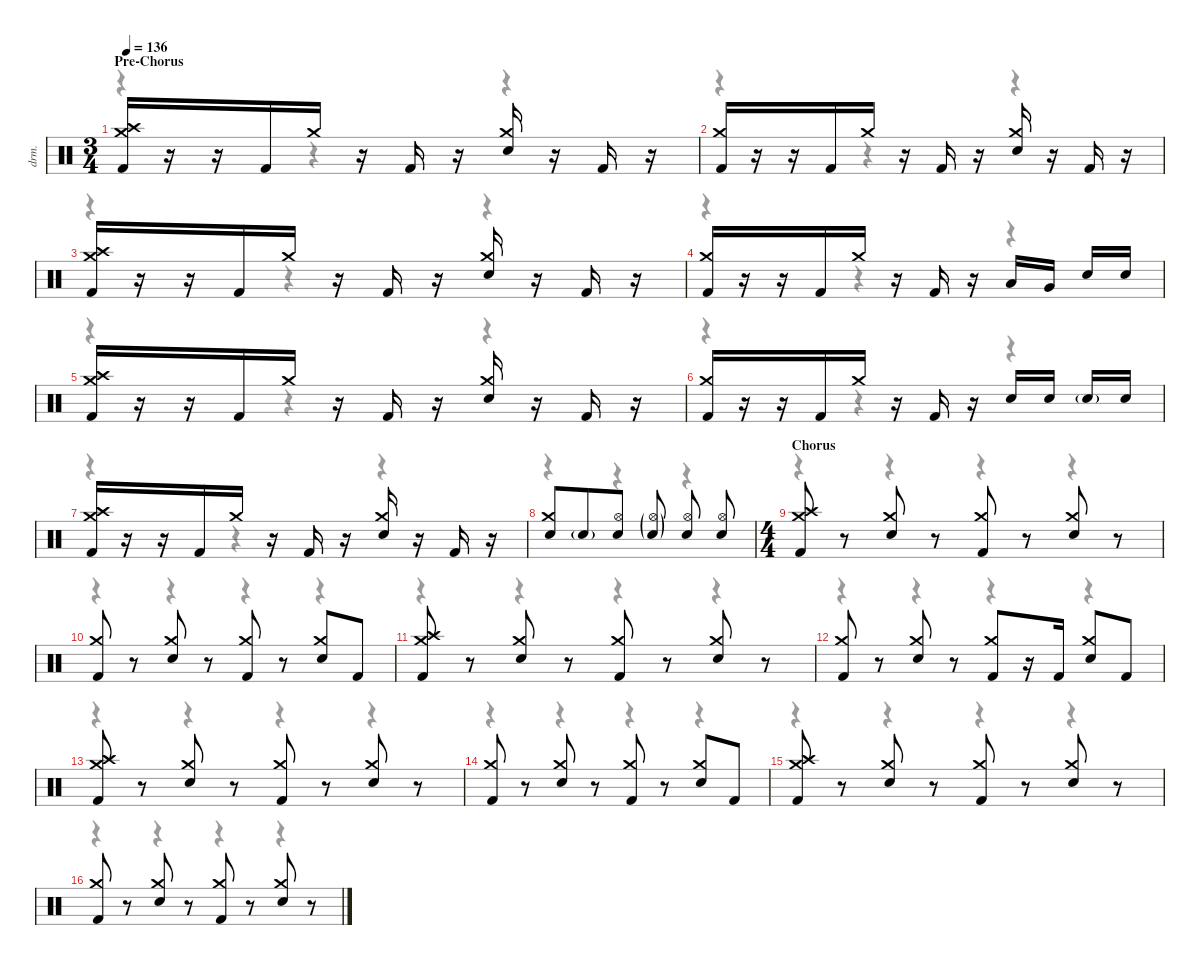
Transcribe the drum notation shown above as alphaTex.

\defaultSystemsLayout 4
\hideDynamics
\bracketExtendMode nobrackets
\track ("Drums" "drm.") {instrument percussion}
\staff {score}
\articulation defaults
\voice
\ts (3 4)
\beaming (8 3 1 1 1)
\section ("" "Pre-Chorus")
\tempo 136
\clef neutral
\ks c
("Crash medium (hit)" "Crash high (hit)" "Kick (hit) 2").16{dy f beam Up} r.16{beam Up} r.16{beam Up} "Kick (hit) 2".16{beam Up} "Crash medium (hit)".16{beam Up} r.16{beam Up} "Kick (hit) 2".16{beam Up} r.16{beam Up} ("Crash medium (hit)" "Snare (hit) 2").16{beam Up} r.16{beam Up} "Kick (hit) 2".16{beam Up} r.16{beam Up} |
("Crash medium (hit)" "Kick (hit) 2").16{beam Up} r.16{beam Up} r.16{beam Up} "Kick (hit) 2".16{beam Up} "Crash medium (hit)".16{beam Up} r.16{beam Up} "Kick (hit) 2".16{beam Up} r.16{beam Up} ("Crash medium (hit)" "Snare (hit) 2").16{beam Up} r.16{beam Up} "Kick (hit) 2".16{beam Up} r.16{beam Up} |
("Crash medium (hit)" "Crash high (hit)" "Kick (hit) 2").16{beam Up} r.16{beam Up} r.16{beam Up} "Kick (hit) 2".16{beam Up} "Crash medium (hit)".16{beam Up} r.16{beam Up} "Kick (hit) 2".16{beam Up} r.16{beam Up} ("Crash medium (hit)" "Snare (hit) 2").16{beam Up} r.16{beam Up} "Kick (hit) 2".16{beam Up} r.16{beam Up} |
("Crash medium (hit)" "Kick (hit) 2").16{beam Up} r.16{beam Up} r.16{beam Up} "Kick (hit) 2".16{beam Up} "Crash medium (hit)".16{beam Up} r.16{beam Up} "Kick (hit) 2".16{beam Up} r.16{beam Up} "Low Tom (hit)".16{beam Up} "Very Low Tom (hit)".16{beam Up} "Snare (hit) 2".16{beam Up} "Snare (hit) 2".16{beam Up} |
("Crash medium (hit)" "Crash high (hit)" "Kick (hit) 2").16{beam Up} r.16{beam Up} r.16{beam Up} "Kick (hit) 2".16{beam Up} "Crash medium (hit)".16{beam Up} r.16{beam Up} "Kick (hit) 2".16{beam Up} r.16{beam Up} ("Crash medium (hit)" "Snare (hit) 2").16{beam Up} r.16{beam Up} "Kick (hit) 2".16{beam Up} r.16{beam Up} |
("Crash medium (hit)" "Kick (hit) 2").16{beam Up} r.16{beam Up} r.16{beam Up} "Kick (hit) 2".16{beam Up} "Crash medium (hit)".16{beam Up} r.16{beam Up} "Kick (hit) 2".16{beam Up} r.16{beam Up} "Snare (hit) 2".16{beam Up} "Snare (hit) 2".16{beam Up} "Snare (hit) 2"{g}.16{beam Up} "Snare (hit) 2".16{beam Up} |
("Crash medium (hit)" "Crash high (hit)" "Kick (hit) 2").16{beam Up} r.16{beam Up} r.16{beam Up} "Kick (hit) 2".16{beam Up} "Crash medium (hit)".16{beam Up} r.16{beam Up} "Kick (hit) 2".16{beam Up} r.16{beam Up} ("Crash medium (hit)" "Snare (hit) 2").16{beam Up} r.16{beam Up} "Kick (hit) 2".16{beam Up} r.16{beam Up} |
("Crash medium (hit)" "Snare (hit) 2").8{beam Up} "Snare (hit) 2"{g}.8{beam Up} ("Hi-Hat (open)" "Snare (hit) 2").8{beam Up} ("Hi-Hat (open)"{g} "Snare (hit) 2"{g}).8{beam Up} ("Hi-Hat (open)" "Snare (hit) 2").8{beam Up} ("Hi-Hat (open)" "Snare (hit) 2").8{beam Up} |
\ts (4 4)
\beaming (8 2 2 2 2)
\section ("" "Chorus")
("Crash medium (hit)" "Crash high (hit)" "Kick (hit) 2").8{beam Up} r.8{beam Up} ("Crash medium (hit)" "Snare (hit) 2").8{beam Up} r.8{beam Up} ("Crash medium (hit)" "Kick (hit) 2").8{beam Up} r.8{beam Up} ("Crash medium (hit)" "Snare (hit) 2").8{beam Up} r.8{beam Up} |
("Crash medium (hit)" "Kick (hit) 2").8{beam Up} r.8{beam Up} ("Crash medium (hit)" "Snare (hit) 2").8{beam Up} r.8{beam Up} ("Crash medium (hit)" "Kick (hit) 2").8{beam Up} r.8{beam Up} ("Crash medium (hit)" "Snare (hit) 2").8{beam Up} "Kick (hit) 2".8{beam Up} |
("Crash medium (hit)" "Crash high (hit)" "Kick (hit) 2").8{beam Up} r.8{beam Up} ("Crash medium (hit)" "Snare (hit) 2").8{beam Up} r.8{beam Up} ("Crash medium (hit)" "Kick (hit) 2").8{beam Up} r.8{beam Up} ("Crash medium (hit)" "Snare (hit) 2").8{beam Up} r.8{beam Up} |
("Crash medium (hit)" "Kick (hit) 2").8{beam Up} r.8{beam Up} ("Crash medium (hit)" "Snare (hit) 2").8{beam Up} r.8{beam Up} ("Crash medium (hit)" "Kick (hit) 2").8{beam Up} r.16{beam Up} "Kick (hit) 2".16{beam Up} ("Crash medium (hit)" "Snare (hit) 2").8{beam Up} "Kick (hit) 2".8{beam Up} |
("Crash medium (hit)" "Crash high (hit)" "Kick (hit) 2").8{beam Up} r.8{beam Up} ("Crash medium (hit)" "Snare (hit) 2").8{beam Up} r.8{beam Up} ("Crash medium (hit)" "Kick (hit) 2").8{beam Up} r.8{beam Up} ("Crash medium (hit)" "Snare (hit) 2").8{beam Up} r.8{beam Up} |
("Crash medium (hit)" "Kick (hit) 2").8{beam Up} r.8{beam Up} ("Crash medium (hit)" "Snare (hit) 2").8{beam Up} r.8{beam Up} ("Crash medium (hit)" "Kick (hit) 2").8{beam Up} r.8{beam Up} ("Crash medium (hit)" "Snare (hit) 2").8{beam Up} "Kick (hit) 2".8{beam Up} |
("Crash medium (hit)" "Crash high (hit)" "Kick (hit) 2").8{beam Up} r.8{beam Up} ("Crash medium (hit)" "Snare (hit) 2").8{beam Up} r.8{beam Up} ("Crash medium (hit)" "Kick (hit) 2").8{beam Up} r.8{beam Up} ("Crash medium (hit)" "Snare (hit) 2").8{beam Up} r.8{beam Up} |
("Crash medium (hit)" "Kick (hit) 2").8{beam Up} r.8{beam Up} ("Crash medium (hit)" "Snare (hit) 2").8{beam Up} r.8{beam Up} ("Crash medium (hit)" "Kick (hit) 2").8{beam Up} r.8{beam Up} ("Crash medium (hit)" "Snare (hit) 2").8{beam Up} r.8{beam Up}
\voice
\clef neutral
\ottava regular
\simile none
\ks c
r.4{dy mf beam Down} r.4{beam Down} r.4{beam Down} |
r.4{beam Down} r.4{beam Down} r.4{beam Down} |
r.4{beam Down} r.4{beam Down} r.4{beam Down} |
r.4{beam Down} r.4{beam Down} r.4{beam Down} |
r.4{beam Down} r.4{beam Down} r.4{beam Down} |
r.4{beam Down} r.4{beam Down} r.4{beam Down} |
r.4{beam Down} r.4{beam Down} r.4{beam Down} |
r.4{beam Down} r.4{beam Down} r.4{beam Down} |
r.4{beam Down} r.4{beam Down} r.4{beam Down} r.4{beam Down} |
r.4{beam Down} r.4{beam Down} r.4{beam Down} r.4{beam Down} |
r.4{beam Down} r.4{beam Down} r.4{beam Down} r.4{beam Down} |
r.4{beam Down} r.4{beam Down} r.4{beam Down} r.4{beam Down} |
r.4{beam Down} r.4{beam Down} r.4{beam Down} r.4{beam Down} |
r.4{beam Down} r.4{beam Down} r.4{beam Down} r.4{beam Down} |
r.4{beam Down} r.4{beam Down} r.4{beam Down} r.4{beam Down} |
r.4{beam Down} r.4{beam Down} r.4{beam Down} r.4{beam Down}
